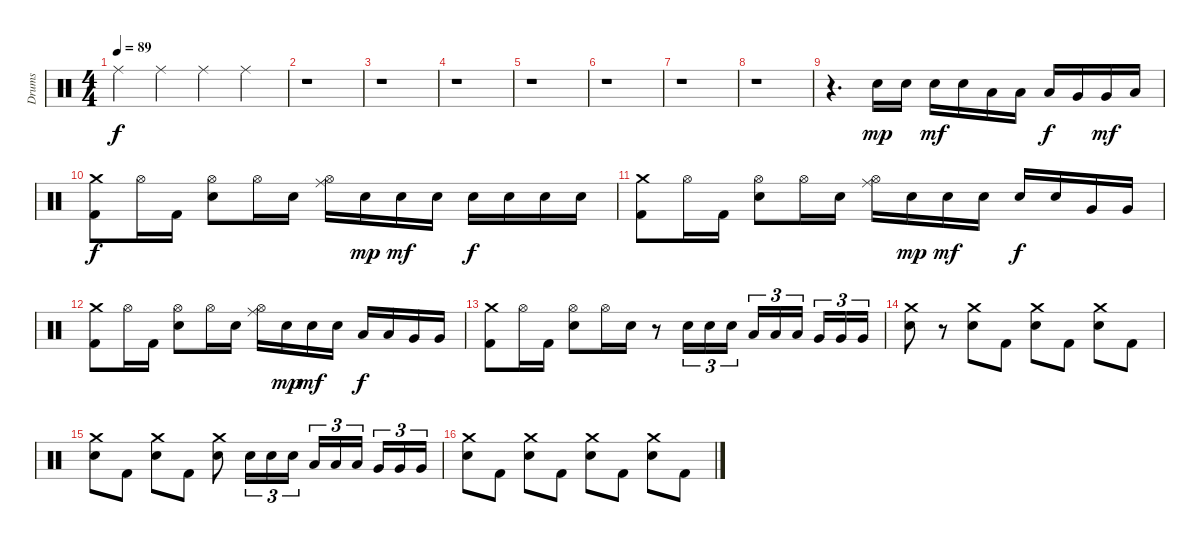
\track ("Drums" "Drums") {instrument percussion}
\staff {score}
\articulation defaults
\ts (4 4)
\tempo 89
\clef neutral
\ks c "Ride (middle)".4{dy f} "Ride (middle)".4 "Ride (middle)".4 "Ride (middle)".4
|
r.1 |
r.1 |
r.1 |
r.1 |
r.1 |
r.1 |
r.1 |
r.4{d} "Electric Snare (hit)".16{dy mp} "Electric Snare (hit)".16 "Electric Snare (hit)".16{dy mf} "Electric Snare (hit)".16 "Low Tom (hit)".16 "Low Tom (hit)".16 "Low Tom (hit)".16{dy f} "Very Low Tom (hit)".16 "Very Low Tom (hit)".16{dy mf} "Low Floor Tom (hit)".16 |
("Crash medium (hit)" "Kick (hit) 2").8{dy f} "Hi-Hat (open)".16 "Kick (hit) 2".16 ("Hi-Hat (open)" "Electric Snare (hit)").8 "Hi-Hat (open)".16 "Electric Snare (hit)".16 ("Ride (middle)" "Hi-Hat (open)").16 "Electric Snare (hit)".16{dy mp} "Electric Snare (hit)".16{dy mf} "Electric Snare (hit)".16 "Electric Snare (hit)".16{dy f} "Electric Snare (hit)".16 "Electric Snare (hit)".16 "Electric Snare (hit)".16 |
("Crash medium (hit)" "Kick (hit) 2").8 "Hi-Hat (open)".16 "Kick (hit) 2".16 ("Hi-Hat (open)" "Electric Snare (hit)").8 "Hi-Hat (open)".16 "Electric Snare (hit)".16 ("Ride (middle)" "Hi-Hat (open)").16 "Electric Snare (hit)".16{dy mp} "Electric Snare (hit)".16{dy mf} "Electric Snare (hit)".16 "Electric Snare (hit)".16{dy f} "Electric Snare (hit)".16 "Very Low Tom (hit)".16 "Very Low Tom (hit)".16 |
("Crash medium (hit)" "Kick (hit) 2").8 "Hi-Hat (open)".16 "Kick (hit) 2".16 ("Hi-Hat (open)" "Electric Snare (hit)").8 "Hi-Hat (open)".16 "Electric Snare (hit)".16 ("Ride (middle)" "Hi-Hat (open)").16 "Electric Snare (hit)".16{dy mp} "Electric Snare (hit)".16{dy mf} "Electric Snare (hit)".16 "Low Tom (hit)".16{dy f} "Low Tom (hit)".16 "Very Low Tom (hit)".16 "Very Low Tom (hit)".16 |
("Crash medium (hit)" "Kick (hit) 2").8 "Hi-Hat (open)".16 "Kick (hit) 2".16 ("Hi-Hat (open)" "Electric Snare (hit)").8 "Hi-Hat (open)".16 "Electric Snare (hit)".16 r.8 "Electric Snare (hit)".16{tu (3 2)} "Electric Snare (hit)".16{tu (3 2)} "Electric Snare (hit)".16{tu (3 2)} "Low Tom (hit)".16{tu (3 2)} "Low Tom (hit)".16{tu (3 2)} "Low Tom (hit)".16{tu (3 2)} "Very Low Tom (hit)".16{tu (3 2)} "Very Low Tom (hit)".16{tu (3 2)} "Very Low Tom (hit)".16{tu (3 2)} |
("Crash medium (hit)" "Electric Snare (hit)").8 r.8 ("Crash medium (hit)" "Electric Snare (hit)").8 "Kick (hit) 2".8 ("Crash medium (hit)" "Electric Snare (hit)").8 "Kick (hit) 2".8 ("Crash medium (hit)" "Electric Snare (hit)").8 "Kick (hit) 2".8 |
("Crash medium (hit)" "Electric Snare (hit)").8 "Kick (hit) 2".8 ("Crash medium (hit)" "Electric Snare (hit)").8 "Kick (hit) 2".8 ("Crash medium (hit)" "Electric Snare (hit)").8 "Electric Snare (hit)".16{tu (3 2)} "Electric Snare (hit)".16{tu (3 2)} "Electric Snare (hit)".16{tu (3 2)} "Low Tom (hit)".16{tu (3 2)} "Low Tom (hit)".16{tu (3 2)} "Low Tom (hit)".16{tu (3 2)} "Very Low Tom (hit)".16{tu (3 2)} "Very Low Tom (hit)".16{tu (3 2)} "Very Low Tom (hit)".16{tu (3 2)} |
("Crash medium (hit)" "Electric Snare (hit)").8 "Kick (hit) 2".8 ("Crash medium (hit)" "Electric Snare (hit)").8 "Kick (hit) 2".8 ("Crash medium (hit)" "Electric Snare (hit)").8 "Kick (hit) 2".8 ("Crash medium (hit)" "Electric Snare (hit)").8 "Kick (hit) 2".8
